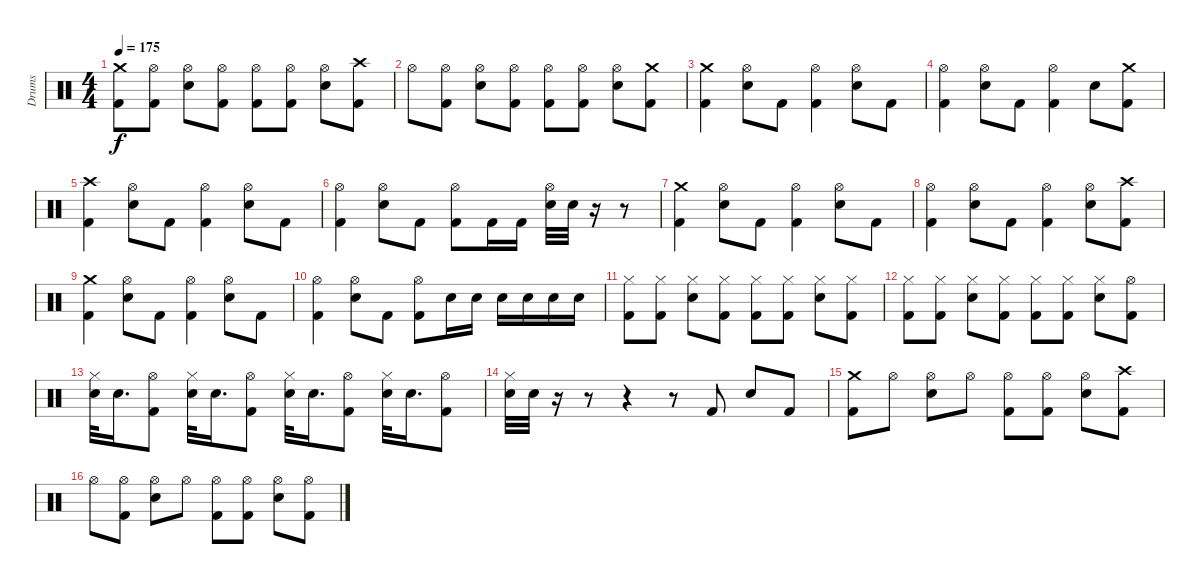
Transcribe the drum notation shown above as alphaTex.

\track ("Drums" "Drums") {instrument percussion}
\staff {score}
\articulation defaults
\ts (4 4)
\tempo 175
\clef neutral
\ks c
("Kick (hit) 2" "Crash medium (hit)").8{dy f} ("Kick (hit) 2" "Hi-Hat (open)").8 ("Snare (hit) 2" "Hi-Hat (open)").8 ("Kick (hit) 2" "Hi-Hat (open)").8 ("Kick (hit) 2" "Hi-Hat (open)").8 ("Kick (hit) 2" "Hi-Hat (open)").8 ("Snare (hit) 2" "Hi-Hat (open)").8 ("Kick (hit) 2" "Crash high (hit)").8 |
"Hi-Hat (open)".8 ("Kick (hit) 2" "Hi-Hat (open)").8 ("Snare (hit) 2" "Hi-Hat (open)").8 ("Kick (hit) 2" "Hi-Hat (open)").8 ("Kick (hit) 2" "Hi-Hat (open)").8 ("Kick (hit) 2" "Hi-Hat (open)").8 ("Snare (hit) 2" "Hi-Hat (open)").8 ("Kick (hit) 2" "Crash medium (hit)").8 |
("Kick (hit) 2" "Crash medium (hit)").4 ("Snare (hit) 2" "Hi-Hat (open)").8 "Kick (hit) 2".8 ("Kick (hit) 2" "Hi-Hat (open)").4 ("Snare (hit) 2" "Hi-Hat (open)").8 "Kick (hit) 2".8 |
("Kick (hit) 2" "Hi-Hat (open)").4 ("Snare (hit) 2" "Hi-Hat (open)").8 "Kick (hit) 2".8 ("Kick (hit) 2" "Hi-Hat (open)").4 "Snare (hit) 2".8 ("Kick (hit) 2" "Crash medium (hit)").8 |
("Kick (hit) 2" "Crash high (hit)").4 ("Snare (hit) 2" "Hi-Hat (open)").8 "Kick (hit) 2".8 ("Kick (hit) 2" "Hi-Hat (open)").4 ("Snare (hit) 2" "Hi-Hat (open)").8 "Kick (hit) 2".8 |
("Kick (hit) 2" "Hi-Hat (open)").4 ("Snare (hit) 2" "Hi-Hat (open)").8 "Kick (hit) 2".8 ("Kick (hit) 2" "Hi-Hat (open)").8 "Kick (hit) 2".16 "Kick (hit) 2".16 ("Snare (hit) 2" "Hi-Hat (open)").32 "Snare (hit) 2".32 r.16 r.8 |
("Kick (hit) 2" "Crash medium (hit)").4 ("Snare (hit) 2" "Hi-Hat (open)").8 "Kick (hit) 2".8 ("Kick (hit) 2" "Hi-Hat (open)").4 ("Snare (hit) 2" "Hi-Hat (open)").8 "Kick (hit) 2".8 |
("Kick (hit) 2" "Hi-Hat (open)").4 ("Snare (hit) 2" "Hi-Hat (open)").8 "Kick (hit) 2".8 ("Kick (hit) 2" "Hi-Hat (open)").4 ("Snare (hit) 2" "Hi-Hat (open)").8 ("Kick (hit) 2" "Crash high (hit)").8 |
("Kick (hit) 2" "Crash medium (hit)").4 ("Snare (hit) 2" "Hi-Hat (open)").8 "Kick (hit) 2".8 ("Kick (hit) 2" "Hi-Hat (open)").4 ("Snare (hit) 2" "Hi-Hat (open)").8 "Kick (hit) 2".8 |
("Kick (hit) 2" "Hi-Hat (open)").4 ("Snare (hit) 2" "Hi-Hat (open)").8 "Kick (hit) 2".8 ("Kick (hit) 2" "Hi-Hat (open)").8 "Snare (hit) 2".16 "Snare (hit) 2".16 "Snare (hit) 2".16 "Snare (hit) 2".16 "Snare (hit) 2".16 "Snare (hit) 2".16 |
("Kick (hit) 2" "Hi-Hat (closed)").8 ("Kick (hit) 2" "Hi-Hat (closed)").8 ("Snare (hit) 2" "Hi-Hat (closed)").8 ("Kick (hit) 2" "Hi-Hat (closed)").8 ("Kick (hit) 2" "Hi-Hat (closed)").8 ("Kick (hit) 2" "Hi-Hat (closed)").8 ("Snare (hit) 2" "Hi-Hat (closed)").8 ("Kick (hit) 2" "Hi-Hat (closed)").8 |
("Kick (hit) 2" "Hi-Hat (closed)").8 ("Kick (hit) 2" "Hi-Hat (closed)").8 ("Snare (hit) 2" "Hi-Hat (closed)").8 ("Kick (hit) 2" "Hi-Hat (closed)").8 ("Kick (hit) 2" "Hi-Hat (closed)").8 ("Kick (hit) 2" "Hi-Hat (closed)").8 ("Snare (hit) 2" "Hi-Hat (closed)").8 ("Kick (hit) 2" "Hi-Hat (open)").8 |
("Snare (hit) 2" "Hi-Hat (closed)").32 "Snare (hit) 2".16{d} ("Kick (hit) 2" "Hi-Hat (open)").8 ("Snare (hit) 2" "Hi-Hat (closed)").32 "Snare (hit) 2".16{d} ("Kick (hit) 2" "Hi-Hat (open)").8 ("Snare (hit) 2" "Hi-Hat (closed)").32 "Snare (hit) 2".16{d} ("Kick (hit) 2" "Hi-Hat (open)").8 ("Snare (hit) 2" "Hi-Hat (closed)").32 "Snare (hit) 2".16{d} ("Kick (hit) 2" "Hi-Hat (open)").8 |
("Snare (hit) 2" "Hi-Hat (closed)").32 "Snare (hit) 2".32 r.16 r.8 r.4 r.8 "Kick (hit) 2".8 "Snare (hit) 2".8 "Kick (hit) 2".8 |
("Kick (hit) 2" "Crash medium (hit)").8 "Hi-Hat (open)".8 ("Snare (hit) 2" "Hi-Hat (open)").8 "Hi-Hat (open)".8 ("Kick (hit) 2" "Hi-Hat (open)").8 ("Kick (hit) 2" "Hi-Hat (open)").8 ("Snare (hit) 2" "Hi-Hat (open)").8 ("Kick (hit) 2" "Crash high (hit)").8 |
"Hi-Hat (open)".8 ("Kick (hit) 2" "Hi-Hat (open)").8 ("Snare (hit) 2" "Hi-Hat (open)").8 "Hi-Hat (open)".8 ("Kick (hit) 2" "Hi-Hat (open)").8 ("Kick (hit) 2" "Hi-Hat (open)").8 ("Snare (hit) 2" "Hi-Hat (open)").8 ("Kick (hit) 2" "Hi-Hat (open)").8
